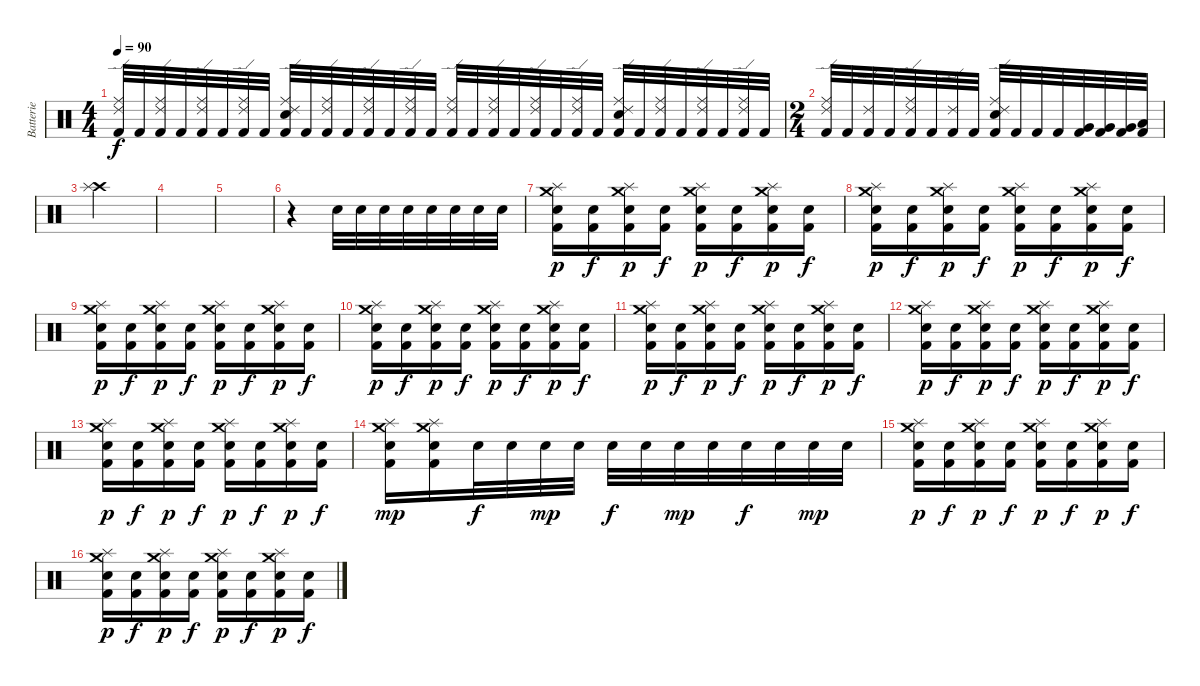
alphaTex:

\track ("Batterie" "Batterie") {instrument percussion}
\staff {score}
\articulation defaults
\ts (4 4)
\tempo 90
\clef neutral
\ks c
("Ride (edge) 2" "Ride (middle)" "Kick (hit) 2").32{dy f} "Kick (hit) 2".32 ("Ride (edge) 2" "Ride (middle)" "Kick (hit) 2").32 "Kick (hit) 2".32 ("Ride (edge) 2" "Ride (middle)" "Kick (hit) 2").32 "Kick (hit) 2".32 ("Ride (edge) 2" "Ride (middle)" "Kick (hit) 2").32 "Kick (hit) 2".32 ("Ride (edge) 2" "Ride (middle)" "Electric Snare (hit)" "Kick (hit) 2").32 "Kick (hit) 2".32 ("Ride (edge) 2" "Ride (middle)" "Kick (hit) 2").32 "Kick (hit) 2".32 ("Ride (edge) 2" "Ride (middle)" "Kick (hit) 2").32 "Kick (hit) 2".32 ("Ride (edge) 2" "Ride (middle)" "Kick (hit) 2").32 "Kick (hit) 2".32 ("Ride (edge) 2" "Ride (middle)" "Kick (hit) 2").32 "Kick (hit) 2".32 ("Ride (edge) 2" "Ride (middle)" "Kick (hit) 2").32 "Kick (hit) 2".32 ("Ride (edge) 2" "Ride (middle)" "Kick (hit) 2").32 "Kick (hit) 2".32 ("Ride (edge) 2" "Ride (middle)" "Kick (hit) 2").32 "Kick (hit) 2".32 ("Ride (edge) 2" "Ride (middle)" "Electric Snare (hit)" "Kick (hit) 2").32 "Kick (hit) 2".32 ("Ride (edge) 2" "Ride (middle)" "Kick (hit) 2").32 "Kick (hit) 2".32 ("Ride (edge) 2" "Ride (middle)" "Kick (hit) 2").32 "Kick (hit) 2".32 ("Ride (edge) 2" "Ride (middle)" "Kick (hit) 2").32 "Kick (hit) 2".32 |
\ts (2 4)
("Ride (edge) 2" "Ride (middle)" "Kick (hit) 2").32 "Kick (hit) 2".32 ("Ride (edge) 2" "Kick (hit) 2").32 "Kick (hit) 2".32 ("Ride (edge) 2" "Ride (middle)" "Kick (hit) 2").32 "Kick (hit) 2".32 ("Ride (edge) 2" "Kick (hit) 2").32 "Kick (hit) 2".32 ("Ride (edge) 2" "Ride (middle)" "Electric Snare (hit)" "Kick (hit) 2").32 "Kick (hit) 2".32 "Kick (hit) 2".32 "Kick (hit) 2".32 ("Very Low Tom (hit)" "Kick (hit) 2").32 ("Very Low Tom (hit)" "Kick (hit) 2").32 ("Very Low Tom (hit)" "Kick (hit) 2").32 ("Low Tom (hit)" "Kick (hit) 2").32 |
("Crash high (hit)" "Splash (hit)").2 |
|
|
r.4 "Electric Snare (hit)".32 "Electric Snare (hit)".32 "Electric Snare (hit)".32 "Electric Snare (hit)".32 "Electric Snare (hit)".32 "Electric Snare (hit)".32 "Electric Snare (hit)".32 "Electric Snare (hit)".32 |
("Splash (hit)" "Crash medium (hit)" "Electric Snare (hit)" "Kick (hit) 2").16{dy p} ("Electric Snare (hit)" "Kick (hit) 2").16{dy f} ("Splash (hit)" "Crash medium (hit)" "Electric Snare (hit)" "Kick (hit) 2").16{dy p} ("Electric Snare (hit)" "Kick (hit) 2").16{dy f} ("Splash (hit)" "Crash medium (hit)" "Electric Snare (hit)" "Kick (hit) 2").16{dy p} ("Electric Snare (hit)" "Kick (hit) 2").16{dy f} ("Splash (hit)" "Crash medium (hit)" "Electric Snare (hit)" "Kick (hit) 2").16{dy p} ("Electric Snare (hit)" "Kick (hit) 2").16{dy f} |
("Splash (hit)" "Crash medium (hit)" "Electric Snare (hit)" "Kick (hit) 2").16{dy p} ("Electric Snare (hit)" "Kick (hit) 2").16{dy f} ("Splash (hit)" "Crash medium (hit)" "Electric Snare (hit)" "Kick (hit) 2").16{dy p} ("Electric Snare (hit)" "Kick (hit) 2").16{dy f} ("Splash (hit)" "Crash medium (hit)" "Electric Snare (hit)" "Kick (hit) 2").16{dy p} ("Electric Snare (hit)" "Kick (hit) 2").16{dy f} ("Splash (hit)" "Crash medium (hit)" "Electric Snare (hit)" "Kick (hit) 2").16{dy p} ("Electric Snare (hit)" "Kick (hit) 2").16{dy f} |
("Splash (hit)" "Crash medium (hit)" "Electric Snare (hit)" "Kick (hit) 2").16{dy p} ("Electric Snare (hit)" "Kick (hit) 2").16{dy f} ("Splash (hit)" "Crash medium (hit)" "Electric Snare (hit)" "Kick (hit) 2").16{dy p} ("Electric Snare (hit)" "Kick (hit) 2").16{dy f} ("Splash (hit)" "Crash medium (hit)" "Electric Snare (hit)" "Kick (hit) 2").16{dy p} ("Electric Snare (hit)" "Kick (hit) 2").16{dy f} ("Splash (hit)" "Crash medium (hit)" "Electric Snare (hit)" "Kick (hit) 2").16{dy p} ("Electric Snare (hit)" "Kick (hit) 2").16{dy f} |
("Splash (hit)" "Crash medium (hit)" "Electric Snare (hit)" "Kick (hit) 2").16{dy p} ("Electric Snare (hit)" "Kick (hit) 2").16{dy f} ("Splash (hit)" "Crash medium (hit)" "Electric Snare (hit)" "Kick (hit) 2").16{dy p} ("Electric Snare (hit)" "Kick (hit) 2").16{dy f} ("Splash (hit)" "Crash medium (hit)" "Electric Snare (hit)" "Kick (hit) 2").16{dy p} ("Electric Snare (hit)" "Kick (hit) 2").16{dy f} ("Splash (hit)" "Crash medium (hit)" "Electric Snare (hit)" "Kick (hit) 2").16{dy p} ("Electric Snare (hit)" "Kick (hit) 2").16{dy f} |
("Splash (hit)" "Crash medium (hit)" "Electric Snare (hit)" "Kick (hit) 2").16{dy p} ("Electric Snare (hit)" "Kick (hit) 2").16{dy f} ("Splash (hit)" "Crash medium (hit)" "Electric Snare (hit)" "Kick (hit) 2").16{dy p} ("Electric Snare (hit)" "Kick (hit) 2").16{dy f} ("Splash (hit)" "Crash medium (hit)" "Electric Snare (hit)" "Kick (hit) 2").16{dy p} ("Electric Snare (hit)" "Kick (hit) 2").16{dy f} ("Splash (hit)" "Crash medium (hit)" "Electric Snare (hit)" "Kick (hit) 2").16{dy p} ("Electric Snare (hit)" "Kick (hit) 2").16{dy f} |
("Splash (hit)" "Crash medium (hit)" "Electric Snare (hit)" "Kick (hit) 2").16{dy p} ("Electric Snare (hit)" "Kick (hit) 2").16{dy f} ("Splash (hit)" "Crash medium (hit)" "Electric Snare (hit)" "Kick (hit) 2").16{dy p} ("Electric Snare (hit)" "Kick (hit) 2").16{dy f} ("Splash (hit)" "Crash medium (hit)" "Electric Snare (hit)" "Kick (hit) 2").16{dy p} ("Electric Snare (hit)" "Kick (hit) 2").16{dy f} ("Splash (hit)" "Crash medium (hit)" "Electric Snare (hit)" "Kick (hit) 2").16{dy p} ("Electric Snare (hit)" "Kick (hit) 2").16{dy f} |
("Splash (hit)" "Crash medium (hit)" "Electric Snare (hit)" "Kick (hit) 2").16{dy p} ("Electric Snare (hit)" "Kick (hit) 2").16{dy f} ("Splash (hit)" "Crash medium (hit)" "Electric Snare (hit)" "Kick (hit) 2").16{dy p} ("Electric Snare (hit)" "Kick (hit) 2").16{dy f} ("Splash (hit)" "Crash medium (hit)" "Electric Snare (hit)" "Kick (hit) 2").16{dy p} ("Electric Snare (hit)" "Kick (hit) 2").16{dy f} ("Splash (hit)" "Crash medium (hit)" "Electric Snare (hit)" "Kick (hit) 2").16{dy p} ("Electric Snare (hit)" "Kick (hit) 2").16{dy f} |
("Splash (hit)" "Crash medium (hit)" "Electric Snare (hit)" "Kick (hit) 2").16{dy mp} ("Splash (hit)" "Crash medium (hit)" "Electric Snare (hit)" "Kick (hit) 2").16 "Electric Snare (hit)".32{dy f} "Electric Snare (hit)".32 "Electric Snare (hit)".32{dy mp} "Electric Snare (hit)".32 "Electric Snare (hit)".32{dy f} "Electric Snare (hit)".32 "Electric Snare (hit)".32{dy mp} "Electric Snare (hit)".32 "Electric Snare (hit)".32{dy f} "Electric Snare (hit)".32 "Electric Snare (hit)".32{dy mp} "Electric Snare (hit)".32 |
("Splash (hit)" "Crash medium (hit)" "Electric Snare (hit)" "Kick (hit) 2").16{dy p} ("Electric Snare (hit)" "Kick (hit) 2").16{dy f} ("Splash (hit)" "Crash medium (hit)" "Electric Snare (hit)" "Kick (hit) 2").16{dy p} ("Electric Snare (hit)" "Kick (hit) 2").16{dy f} ("Splash (hit)" "Crash medium (hit)" "Electric Snare (hit)" "Kick (hit) 2").16{dy p} ("Electric Snare (hit)" "Kick (hit) 2").16{dy f} ("Splash (hit)" "Crash medium (hit)" "Electric Snare (hit)" "Kick (hit) 2").16{dy p} ("Electric Snare (hit)" "Kick (hit) 2").16{dy f} |
("Splash (hit)" "Crash medium (hit)" "Electric Snare (hit)" "Kick (hit) 2").16{dy p} ("Electric Snare (hit)" "Kick (hit) 2").16{dy f} ("Splash (hit)" "Crash medium (hit)" "Electric Snare (hit)" "Kick (hit) 2").16{dy p} ("Electric Snare (hit)" "Kick (hit) 2").16{dy f} ("Splash (hit)" "Crash medium (hit)" "Electric Snare (hit)" "Kick (hit) 2").16{dy p} ("Electric Snare (hit)" "Kick (hit) 2").16{dy f} ("Splash (hit)" "Crash medium (hit)" "Electric Snare (hit)" "Kick (hit) 2").16{dy p} ("Electric Snare (hit)" "Kick (hit) 2").16{dy f}
